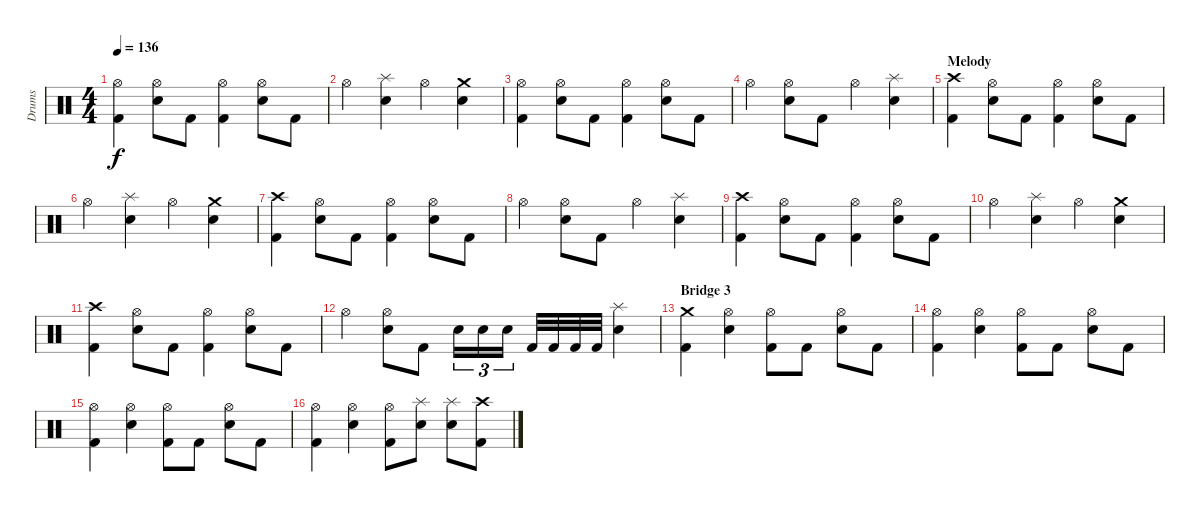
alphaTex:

\track ("Drums" "Drums") {instrument percussion}
\staff {score}
\articulation defaults
\ts (4 4)
\tempo 136
\clef neutral
\ks c
("Hi-Hat (open)" "Kick (hit) 2").4{dy f} ("Hi-Hat (open)" "Snare (hit) 2").8 "Kick (hit) 2".8 ("Hi-Hat (open)" "Kick (hit) 2").4 ("Hi-Hat (open)" "Snare (hit) 2").8 "Kick (hit) 2".8 |
"Hi-Hat (open)".4 ("Splash (hit)" "Snare (hit) 2").4 "Hi-Hat (open)".4 ("Crash medium (hit)" "Snare (hit) 2").4 |
("Hi-Hat (open)" "Kick (hit) 2").4 ("Hi-Hat (open)" "Snare (hit) 2").8 "Kick (hit) 2".8 ("Hi-Hat (open)" "Kick (hit) 2").4 ("Hi-Hat (open)" "Snare (hit) 2").8 "Kick (hit) 2".8 |
"Hi-Hat (open)".4 ("Hi-Hat (open)" "Snare (hit) 2").8 "Kick (hit) 2".8 "Hi-Hat (open)".4 ("Splash (hit)" "Snare (hit) 2").4 |
\section ("" "Melody")
("Crash high (hit)" "Kick (hit) 2").4 ("Hi-Hat (open)" "Snare (hit) 2").8 "Kick (hit) 2".8 ("Hi-Hat (open)" "Kick (hit) 2").4 ("Hi-Hat (open)" "Snare (hit) 2").8 "Kick (hit) 2".8 |
"Hi-Hat (open)".4 ("Splash (hit)" "Snare (hit) 2").4 "Hi-Hat (open)".4 ("Crash medium (hit)" "Snare (hit) 2").4 |
("Crash high (hit)" "Kick (hit) 2").4 ("Hi-Hat (open)" "Snare (hit) 2").8 "Kick (hit) 2".8 ("Hi-Hat (open)" "Kick (hit) 2").4 ("Hi-Hat (open)" "Snare (hit) 2").8 "Kick (hit) 2".8 |
"Hi-Hat (open)".4 ("Hi-Hat (open)" "Snare (hit) 2").8 "Kick (hit) 2".8 "Hi-Hat (open)".4 ("Splash (hit)" "Snare (hit) 2").4 |
("Crash high (hit)" "Kick (hit) 2").4 ("Hi-Hat (open)" "Snare (hit) 2").8 "Kick (hit) 2".8 ("Hi-Hat (open)" "Kick (hit) 2").4 ("Hi-Hat (open)" "Snare (hit) 2").8 "Kick (hit) 2".8 |
"Hi-Hat (open)".4 ("Splash (hit)" "Snare (hit) 2").4 "Hi-Hat (open)".4 ("Crash medium (hit)" "Snare (hit) 2").4 |
("Crash high (hit)" "Kick (hit) 2").4 ("Hi-Hat (open)" "Snare (hit) 2").8 "Kick (hit) 2".8 ("Hi-Hat (open)" "Kick (hit) 2").4 ("Hi-Hat (open)" "Snare (hit) 2").8 "Kick (hit) 2".8 |
"Hi-Hat (open)".4 ("Hi-Hat (open)" "Snare (hit) 2").8 "Kick (hit) 2".8 "Snare (hit) 2".16{tu (3 2)} "Snare (hit) 2".16{tu (3 2)} "Snare (hit) 2".16{tu (3 2)} "Kick (hit) 2".32 "Kick (hit) 2".32 "Kick (hit) 2".32 "Kick (hit) 2".32 ("Splash (hit)" "Snare (hit) 2").4 |
\section ("" "Bridge 3")
("Crash medium (hit)" "Kick (hit) 2").4 ("Hi-Hat (open)" "Snare (hit) 2").4 ("Hi-Hat (open)" "Kick (hit) 2").8 "Kick (hit) 2".8 ("Hi-Hat (open)" "Snare (hit) 2").8 "Kick (hit) 2".8 |
("Hi-Hat (open)" "Kick (hit) 2").4 ("Hi-Hat (open)" "Snare (hit) 2").4 ("Hi-Hat (open)" "Kick (hit) 2").8 "Kick (hit) 2".8 ("Hi-Hat (open)" "Snare (hit) 2").8 "Kick (hit) 2".8 |
("Hi-Hat (open)" "Kick (hit) 2").4 ("Hi-Hat (open)" "Snare (hit) 2").4 ("Hi-Hat (open)" "Kick (hit) 2").8 "Kick (hit) 2".8 ("Hi-Hat (open)" "Snare (hit) 2").8 "Kick (hit) 2".8 |
("Hi-Hat (open)" "Kick (hit) 2").4 ("Hi-Hat (open)" "Snare (hit) 2").4 ("Hi-Hat (open)" "Kick (hit) 2").8 ("Splash (hit)" "Snare (hit) 2").8 ("Splash (hit)" "Snare (hit) 2").8 ("Crash high (hit)" "Kick (hit) 2").8
